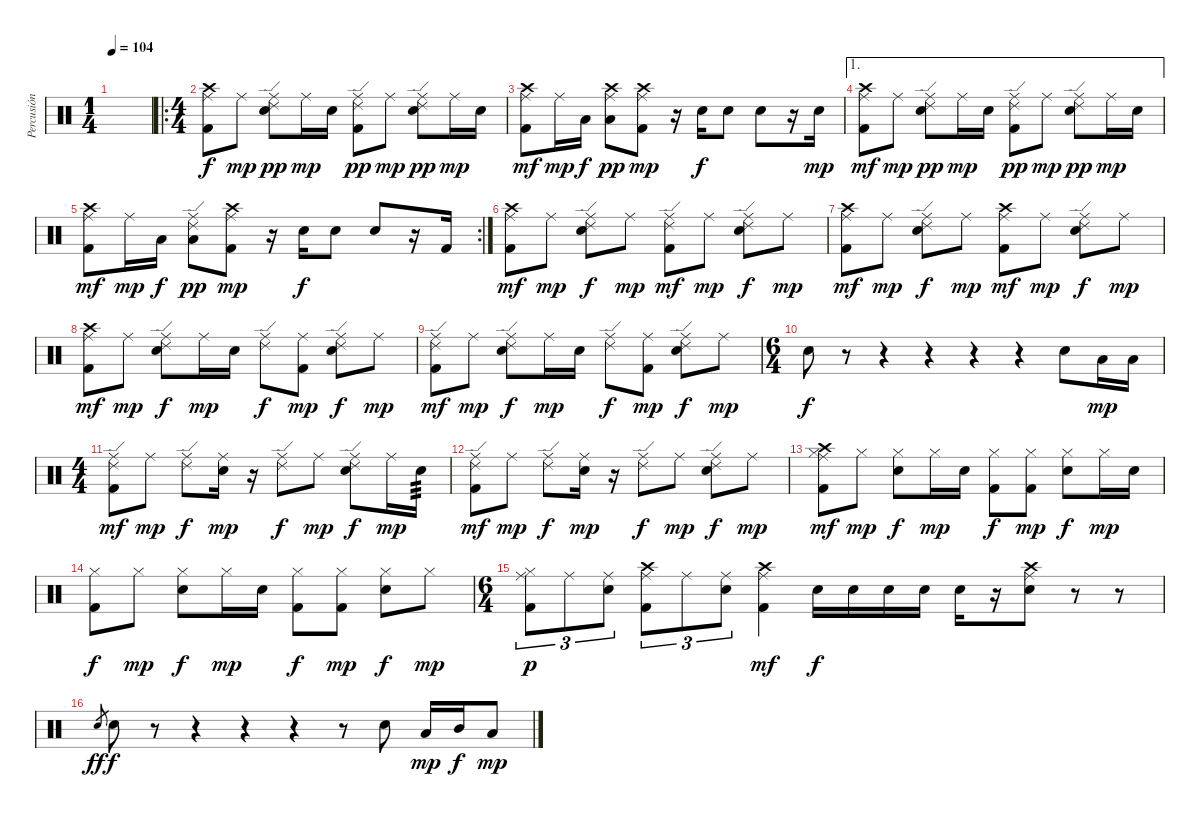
\track ("Percusión" "Percusión") {instrument percussion}
\staff {score}
\articulation defaults
\ts (1 4)
\tempo 104
\clef neutral
\ks c
|
\ro
\ts (4 4)
("Crash high (hit)" "Ride (middle)" "Kick (hit) 2").8 "Ride (middle)".8{dy mp} ("Ride (edge) 2" "Ride (middle)" "Snare (hit) 2").8{dy pp} "Ride (middle)".16{dy mp} "Snare (hit) 2".16 ("Ride (edge) 2" "Ride (middle)" "Kick (hit) 2").8{dy pp} "Ride (middle)".8{dy mp} ("Ride (edge) 2" "Ride (middle)" "Snare (hit) 2").8{dy pp} "Ride (middle)".16{dy mp} "Snare (hit) 2".16 |
("Crash high (hit)" "Ride (middle)" "Kick (hit) 2").8{dy mf} "Ride (middle)".16{dy mp} "Low Floor Tom (hit)".16{dy f} ("Crash high (hit)" "Ride (middle)" "Low Floor Tom (hit)").8{dy pp} ("Crash high (hit)" "Ride (middle)" "Kick (hit) 2").8{dy mp} r.16 "Snare (hit) 2".16{dy f} "Snare (hit) 2".8 "Snare (hit) 2".8 r.16 "Snare (hit) 2".16{dy mp} |
\ae 1
("Crash high (hit)" "Ride (middle)" "Kick (hit) 2").8{dy mf} "Ride (middle)".8{dy mp} ("Ride (edge) 2" "Ride (middle)" "Snare (hit) 2").8{dy pp} "Ride (middle)".16{dy mp} "Snare (hit) 2".16 ("Ride (edge) 2" "Ride (middle)" "Kick (hit) 2").8{dy pp} "Ride (middle)".8{dy mp} ("Ride (edge) 2" "Ride (middle)" "Snare (hit) 2").8{dy pp} "Ride (middle)".16{dy mp} "Snare (hit) 2".16 |
\rc 2
("Crash high (hit)" "Ride (middle)" "Kick (hit) 2").8{dy mf} "Ride (middle)".16{dy mp} "Low Floor Tom (hit)".16{dy f} ("Ride (edge) 2" "Ride (middle)" "Low Floor Tom (hit)").8{dy pp} ("Crash high (hit)" "Ride (middle)" "Kick (hit) 2").8{dy mp} r.16 "Snare (hit) 2".16{dy f} "Snare (hit) 2".8 "Snare (hit) 2".8 r.16 "Kick (hit) 2".16 |
("Crash high (hit)" "Ride (middle)" "Kick (hit) 2").8{dy mf} "Ride (middle)".8{dy mp} ("Ride (edge) 2" "Ride (middle)" "Snare (hit) 2").8{dy f} "Ride (middle)".8{dy mp} ("Ride (edge) 2" "Ride (middle)" "Kick (hit) 2").8{dy mf} "Ride (middle)".8{dy mp} ("Ride (edge) 2" "Ride (middle)" "Snare (hit) 2").8{dy f} "Ride (middle)".8{dy mp} |
("Crash high (hit)" "Ride (middle)" "Kick (hit) 2").8{dy mf} "Ride (middle)".8{dy mp} ("Ride (edge) 2" "Ride (middle)" "Snare (hit) 2").8{dy f} "Ride (middle)".8{dy mp} ("Crash high (hit)" "Ride (middle)" "Kick (hit) 2").8{dy mf} "Ride (middle)".8{dy mp} ("Ride (edge) 2" "Ride (middle)" "Snare (hit) 2").8{dy f} "Ride (middle)".8{dy mp} |
("Crash high (hit)" "Ride (middle)" "Kick (hit) 2").8{dy mf} "Ride (middle)".8{dy mp} ("Ride (edge) 2" "Ride (middle)" "Snare (hit) 2").8{dy f} "Ride (middle)".16{dy mp} "Snare (hit) 2".16 ("Ride (edge) 2" "Ride (middle)").8{dy f} ("Ride (middle)" "Kick (hit) 2").8{dy mp} ("Ride (edge) 2" "Ride (middle)" "Snare (hit) 2").8{dy f} "Ride (middle)".8{dy mp} |
("Ride (edge) 2" "Ride (middle)" "Kick (hit) 2").8{dy mf} "Ride (middle)".8{dy mp} ("Ride (edge) 2" "Ride (middle)" "Snare (hit) 2").8{dy f} "Ride (middle)".16{dy mp} "Snare (hit) 2".16 ("Ride (edge) 2" "Ride (middle)").8{dy f} ("Ride (middle)" "Kick (hit) 2").8{dy mp} ("Ride (edge) 2" "Ride (middle)" "Snare (hit) 2").8{dy f} "Ride (middle)".8{dy mp} |
\ts (6 4)
"Snare (hit) 2".8{dy f} r.8 r.4 r.4 r.4 r.4 "Snare (hit) 2".8 "Low Tom (hit)".16{dy mp} "Low Tom (hit)".16 |
\ts (4 4)
("Ride (edge) 2" "Ride (middle)" "Kick (hit) 2").8{dy mf} "Ride (middle)".8{dy mp} ("Ride (edge) 2" "Ride (middle)").8{dy f} ("Ride (middle)" "Snare (hit) 2").16{dy mp} r.16 ("Ride (edge) 2" "Ride (middle)").8{dy f} "Ride (middle)".8{dy mp} ("Ride (edge) 2" "Ride (middle)" "Snare (hit) 2").8{dy f} "Ride (middle)".16{dy mp} "Snare (hit) 2".16{tp 3} |
("Ride (edge) 2" "Ride (middle)" "Kick (hit) 2").8{dy mf} "Ride (middle)".8{dy mp} ("Ride (edge) 2" "Ride (middle)").8{dy f} ("Ride (middle)" "Snare (hit) 2").16{dy mp} r.16 ("Ride (edge) 2" "Ride (middle)").8{dy f} "Ride (middle)".8{dy mp} ("Ride (edge) 2" "Ride (middle)" "Snare (hit) 2").8{dy f} "Ride (middle)".8{dy mp} |
("Crash high (hit)" "Ride (middle)" "Hi-Hat (closed)" "Kick (hit) 2").8{dy mf} "Hi-Hat (closed)".8{dy mp} ("Hi-Hat (closed)" "Snare (hit) 2").8{dy f} "Hi-Hat (closed)".16{dy mp} "Snare (hit) 2".16 ("Hi-Hat (closed)" "Kick (hit) 2").8{dy f} ("Hi-Hat (closed)" "Kick (hit) 2").8{dy mp} ("Hi-Hat (closed)" "Snare (hit) 2").8{dy f} "Hi-Hat (closed)".16{dy mp} "Snare (hit) 2".16 |
("Hi-Hat (closed)" "Kick (hit) 2").8{dy f} "Hi-Hat (closed)".8{dy mp} ("Hi-Hat (closed)" "Snare (hit) 2").8{dy f} "Hi-Hat (closed)".16{dy mp} "Snare (hit) 2".16 ("Hi-Hat (closed)" "Kick (hit) 2").8{dy f} ("Hi-Hat (closed)" "Kick (hit) 2").8{dy mp} ("Hi-Hat (closed)" "Snare (hit) 2").8{dy f} "Hi-Hat (closed)".8{dy mp} |
\ts (6 4)
("Ride (middle)" "Hi-Hat (closed)" "Kick (hit) 2").8{tu (3 2) dy p} "Ride (middle)".8{tu (3 2)} ("Ride (middle)" "Snare (hit) 2").8{tu (3 2)} ("Crash high (hit)" "Ride (middle)" "Kick (hit) 2").8{tu (3 2)} "Ride (middle)".8{tu (3 2)} ("Ride (middle)" "Snare (hit) 2").8{tu (3 2)} ("Crash high (hit)" "Ride (middle)" "Kick (hit) 2").4{dy mf} "Snare (hit) 2".16{dy f} "Snare (hit) 2".16 "Snare (hit) 2".16 "Snare (hit) 2".16 "Snare (hit) 2".16 r.16 ("Crash high (hit)" "Ride (middle)" "Snare (hit) 2").8 r.8 r.8 |
"Snare (hit) 2".8{gr dy ff} "Snare (hit) 2".8{dy f} r.8 r.4 r.4 r.4 r.8 "Snare (hit) 2".8 "Low Tom (hit)".16{dy mp} "Mid Tom (hit)".16{dy f} "Low Tom (hit)".8{dy mp}
